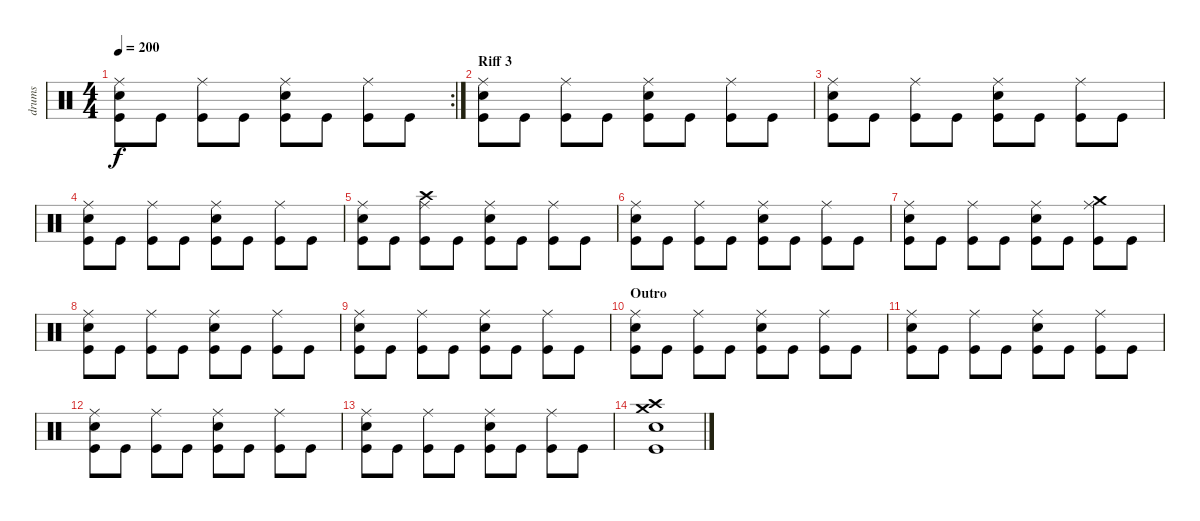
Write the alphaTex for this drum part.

\track ("drums" "drums") {instrument percussion}
\staff {score}
\articulation defaults
\rc 2
\ts (4 4)
\tempo 200
\clef neutral
\ks c
("Ride (middle)" "Snare (hit) 2" "Kick (hit)").8{dy f} "Kick (hit)".8 ("Ride (middle)" "Kick (hit)").8 "Kick (hit)".8 ("Ride (middle)" "Snare (hit) 2" "Kick (hit)").8 "Kick (hit)".8 ("Ride (middle)" "Kick (hit)").8 "Kick (hit)".8 |
\section ("" "Riff 3")
("Ride (middle)" "Snare (hit) 2" "Kick (hit)").8 "Kick (hit)".8 ("Ride (middle)" "Kick (hit)").8 "Kick (hit)".8 ("Ride (middle)" "Snare (hit) 2" "Kick (hit)").8 "Kick (hit)".8 ("Ride (middle)" "Kick (hit)").8 "Kick (hit)".8 |
("Ride (middle)" "Snare (hit) 2" "Kick (hit)").8 "Kick (hit)".8 ("Ride (middle)" "Kick (hit)").8 "Kick (hit)".8 ("Ride (middle)" "Snare (hit) 2" "Kick (hit)").8 "Kick (hit)".8 ("Ride (middle)" "Kick (hit)").8 "Kick (hit)".8 |
("Ride (middle)" "Snare (hit) 2" "Kick (hit)").8 "Kick (hit)".8 ("Ride (middle)" "Kick (hit)").8 "Kick (hit)".8 ("Ride (middle)" "Snare (hit) 2" "Kick (hit)").8 "Kick (hit)".8 ("Ride (middle)" "Kick (hit)").8 "Kick (hit)".8 |
("Ride (middle)" "Snare (hit) 2" "Kick (hit)").8 "Kick (hit)".8 ("Ride (middle)" "Crash high (hit)" "Kick (hit)").8 "Kick (hit)".8 ("Ride (middle)" "Snare (hit) 2" "Kick (hit)").8 "Kick (hit)".8 ("Ride (middle)" "Kick (hit)").8 "Kick (hit)".8 |
("Ride (middle)" "Snare (hit) 2" "Kick (hit)").8 "Kick (hit)".8 ("Ride (middle)" "Kick (hit)").8 "Kick (hit)".8 ("Ride (middle)" "Snare (hit) 2" "Kick (hit)").8 "Kick (hit)".8 ("Ride (middle)" "Kick (hit)").8 "Kick (hit)".8 |
("Ride (middle)" "Snare (hit) 2" "Kick (hit)").8 "Kick (hit)".8 ("Ride (middle)" "Kick (hit)").8 "Kick (hit)".8 ("Ride (middle)" "Snare (hit) 2" "Kick (hit)").8 "Kick (hit)".8 ("Ride (middle)" "Crash medium (hit)" "Kick (hit)").8 "Kick (hit)".8 |
("Ride (middle)" "Snare (hit) 2" "Kick (hit)").8 "Kick (hit)".8 ("Ride (middle)" "Kick (hit)").8 "Kick (hit)".8 ("Ride (middle)" "Snare (hit) 2" "Kick (hit)").8 "Kick (hit)".8 ("Ride (middle)" "Kick (hit)").8 "Kick (hit)".8 |
("Ride (middle)" "Snare (hit) 2" "Kick (hit)").8 "Kick (hit)".8 ("Ride (middle)" "Kick (hit)").8 "Kick (hit)".8 ("Ride (middle)" "Snare (hit) 2" "Kick (hit)").8 "Kick (hit)".8 ("Ride (middle)" "Kick (hit)").8 "Kick (hit)".8 |
\section ("" "Outro")
("Ride (middle)" "Snare (hit) 2" "Kick (hit)").8 "Kick (hit)".8 ("Ride (middle)" "Kick (hit)").8 "Kick (hit)".8 ("Ride (middle)" "Snare (hit) 2" "Kick (hit)").8 "Kick (hit)".8 ("Ride (middle)" "Kick (hit)").8 "Kick (hit)".8 |
("Ride (middle)" "Snare (hit) 2" "Kick (hit)").8 "Kick (hit)".8 ("Ride (middle)" "Kick (hit)").8 "Kick (hit)".8 ("Ride (middle)" "Snare (hit) 2" "Kick (hit)").8 "Kick (hit)".8 ("Ride (middle)" "Kick (hit)").8 "Kick (hit)".8 |
("Ride (middle)" "Snare (hit) 2" "Kick (hit)").8 "Kick (hit)".8 ("Ride (middle)" "Kick (hit)").8 "Kick (hit)".8 ("Ride (middle)" "Snare (hit) 2" "Kick (hit)").8 "Kick (hit)".8 ("Ride (middle)" "Kick (hit)").8 "Kick (hit)".8 |
("Ride (middle)" "Snare (hit) 2" "Kick (hit)").8 "Kick (hit)".8 ("Ride (middle)" "Kick (hit)").8 "Kick (hit)".8 ("Ride (middle)" "Snare (hit) 2" "Kick (hit)").8 "Kick (hit)".8 ("Ride (middle)" "Kick (hit)").8 "Kick (hit)".8 |
("Crash high (hit)" "Crash medium (hit)" "Snare (hit) 2" "Kick (hit)").1
